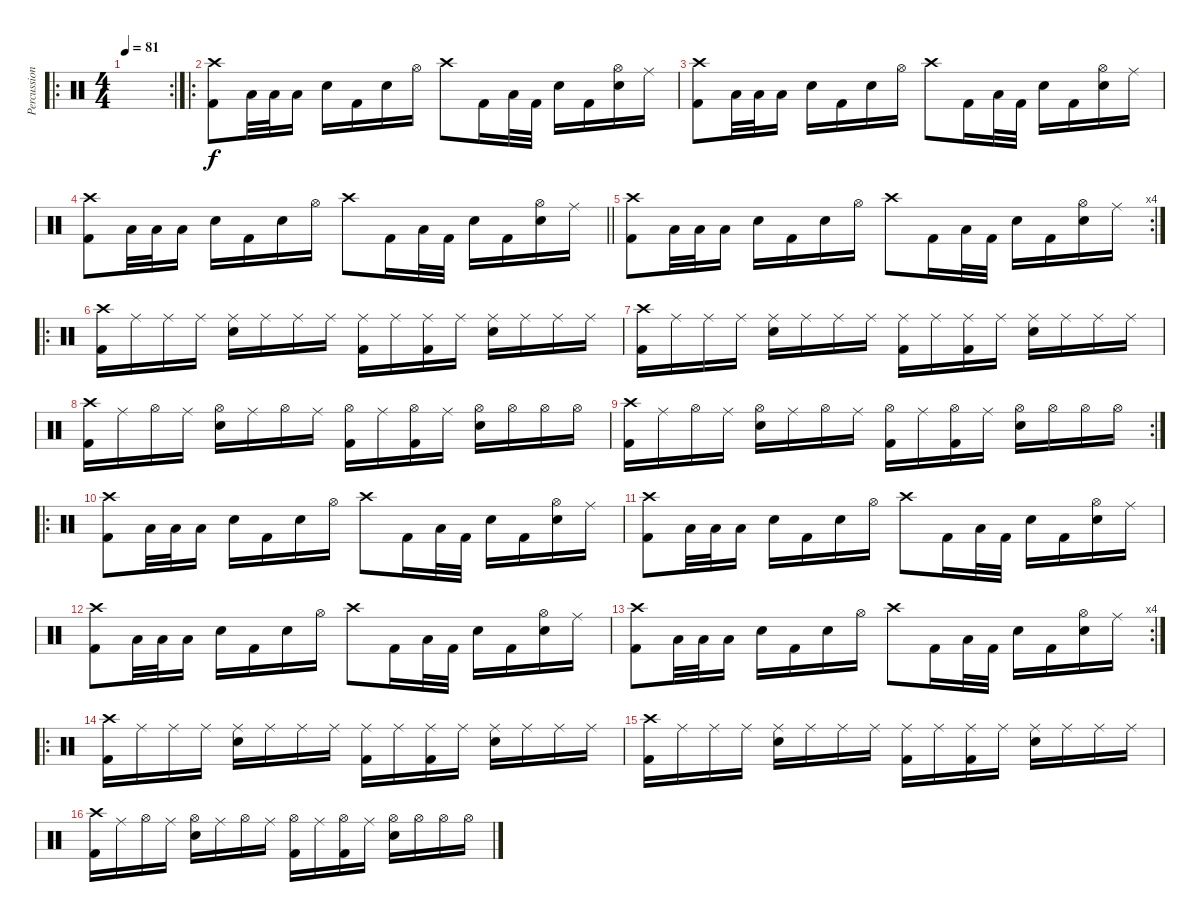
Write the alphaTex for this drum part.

\track ("Percussion" "Percussion") {instrument percussion}
\staff {score}
\articulation defaults
\ro
\rc 2
\ts (4 4)
\tempo 81
\clef neutral
\ks c
|
\ro
("Crash high (hit)" "Kick (hit) 2").8 "Low Floor Tom (hit)".32 "Low Floor Tom (hit)".32 "Low Floor Tom (hit)".16 "Snare (hit) 2".16 "Kick (hit) 2".16 "Snare (hit) 2".16 "Hi-Hat (open)".16 "Crash high (hit)".8 "Kick (hit) 2".16 "Low Floor Tom (hit)".32 "Kick (hit) 2".32 "Snare (hit) 2".16 "Kick (hit) 2".16 ("Hi-Hat (open)" "Snare (hit) 2").16 "Ride (middle)".16 |
("Crash high (hit)" "Kick (hit) 2").8 "Low Floor Tom (hit)".32 "Low Floor Tom (hit)".32 "Low Floor Tom (hit)".16 "Snare (hit) 2".16 "Kick (hit) 2".16 "Snare (hit) 2".16 "Hi-Hat (open)".16 "Crash high (hit)".8 "Kick (hit) 2".16 "Low Floor Tom (hit)".32 "Kick (hit) 2".32 "Snare (hit) 2".16 "Kick (hit) 2".16 ("Hi-Hat (open)" "Snare (hit) 2").16 "Ride (middle)".16 |
\barLineRight lightlight
("Crash high (hit)" "Kick (hit) 2").8 "Low Floor Tom (hit)".32 "Low Floor Tom (hit)".32 "Low Floor Tom (hit)".16 "Snare (hit) 2".16 "Kick (hit) 2".16 "Snare (hit) 2".16 "Hi-Hat (open)".16 "Crash high (hit)".8 "Kick (hit) 2".16 "Low Floor Tom (hit)".32 "Kick (hit) 2".32 "Snare (hit) 2".16 "Kick (hit) 2".16 ("Hi-Hat (open)" "Snare (hit) 2").16 "Ride (middle)".16 |
\rc 4
("Crash high (hit)" "Kick (hit) 2").8 "Low Floor Tom (hit)".32 "Low Floor Tom (hit)".32 "Low Floor Tom (hit)".16 "Snare (hit) 2".16 "Kick (hit) 2".16 "Snare (hit) 2".16 "Hi-Hat (open)".16 "Crash high (hit)".8 "Kick (hit) 2".16 "Low Floor Tom (hit)".32 "Kick (hit) 2".32 "Snare (hit) 2".16 "Kick (hit) 2".16 ("Hi-Hat (open)" "Snare (hit) 2").16 "Ride (middle)".16 |
\ro
("Crash high (hit)" "Kick (hit) 2").16 "Ride (middle)".16 "Ride (middle)".16 "Ride (middle)".16 ("Ride (middle)" "Snare (hit) 2").16 "Ride (middle)".16 "Ride (middle)".16 "Ride (middle)".16 ("Ride (middle)" "Kick (hit) 2").16 "Ride (middle)".16 ("Ride (middle)" "Kick (hit) 2").16 "Ride (middle)".16 ("Ride (middle)" "Snare (hit) 2").16 "Ride (middle)".16 "Ride (middle)".16 "Ride (middle)".16 |
("Crash high (hit)" "Kick (hit) 2").16 "Ride (middle)".16 "Ride (middle)".16 "Ride (middle)".16 ("Ride (middle)" "Snare (hit) 2").16 "Ride (middle)".16 "Ride (middle)".16 "Ride (middle)".16 ("Ride (middle)" "Kick (hit) 2").16 "Ride (middle)".16 ("Ride (middle)" "Kick (hit) 2").16 "Ride (middle)".16 ("Ride (middle)" "Snare (hit) 2").16 "Ride (middle)".16 "Ride (middle)".16 "Ride (middle)".16 |
("Crash high (hit)" "Kick (hit) 2").16 "Ride (middle)".16 "Hi-Hat (open)".16 "Ride (middle)".16 ("Hi-Hat (open)" "Snare (hit) 2").16 "Ride (middle)".16 "Hi-Hat (open)".16 "Ride (middle)".16 ("Hi-Hat (open)" "Kick (hit) 2").16 "Ride (middle)".16 ("Hi-Hat (open)" "Kick (hit) 2").16 "Ride (middle)".16 ("Hi-Hat (open)" "Snare (hit) 2").16 "Hi-Hat (open)".16 "Hi-Hat (open)".16 "Hi-Hat (open)".16 |
\rc 2
("Crash high (hit)" "Kick (hit) 2").16 "Ride (middle)".16 "Hi-Hat (open)".16 "Ride (middle)".16 ("Hi-Hat (open)" "Snare (hit) 2").16 "Ride (middle)".16 "Hi-Hat (open)".16 "Ride (middle)".16 ("Hi-Hat (open)" "Kick (hit) 2").16 "Ride (middle)".16 ("Hi-Hat (open)" "Kick (hit) 2").16 "Ride (middle)".16 ("Hi-Hat (open)" "Snare (hit) 2").16 "Hi-Hat (open)".16 "Hi-Hat (open)".16 "Hi-Hat (open)".16 |
\ro
("Crash high (hit)" "Kick (hit) 2").8 "Low Floor Tom (hit)".32 "Low Floor Tom (hit)".32 "Low Floor Tom (hit)".16 "Snare (hit) 2".16 "Kick (hit) 2".16 "Snare (hit) 2".16 "Hi-Hat (open)".16 "Crash high (hit)".8 "Kick (hit) 2".16 "Low Floor Tom (hit)".32 "Kick (hit) 2".32 "Snare (hit) 2".16 "Kick (hit) 2".16 ("Hi-Hat (open)" "Snare (hit) 2").16 "Ride (middle)".16 |
("Crash high (hit)" "Kick (hit) 2").8 "Low Floor Tom (hit)".32 "Low Floor Tom (hit)".32 "Low Floor Tom (hit)".16 "Snare (hit) 2".16 "Kick (hit) 2".16 "Snare (hit) 2".16 "Hi-Hat (open)".16 "Crash high (hit)".8 "Kick (hit) 2".16 "Low Floor Tom (hit)".32 "Kick (hit) 2".32 "Snare (hit) 2".16 "Kick (hit) 2".16 ("Hi-Hat (open)" "Snare (hit) 2").16 "Ride (middle)".16 |
("Crash high (hit)" "Kick (hit) 2").8 "Low Floor Tom (hit)".32 "Low Floor Tom (hit)".32 "Low Floor Tom (hit)".16 "Snare (hit) 2".16 "Kick (hit) 2".16 "Snare (hit) 2".16 "Hi-Hat (open)".16 "Crash high (hit)".8 "Kick (hit) 2".16 "Low Floor Tom (hit)".32 "Kick (hit) 2".32 "Snare (hit) 2".16 "Kick (hit) 2".16 ("Hi-Hat (open)" "Snare (hit) 2").16 "Ride (middle)".16 |
\rc 4
("Crash high (hit)" "Kick (hit) 2").8 "Low Floor Tom (hit)".32 "Low Floor Tom (hit)".32 "Low Floor Tom (hit)".16 "Snare (hit) 2".16 "Kick (hit) 2".16 "Snare (hit) 2".16 "Hi-Hat (open)".16 "Crash high (hit)".8 "Kick (hit) 2".16 "Low Floor Tom (hit)".32 "Kick (hit) 2".32 "Snare (hit) 2".16 "Kick (hit) 2".16 ("Hi-Hat (open)" "Snare (hit) 2").16 "Ride (middle)".16 |
\ro
("Crash high (hit)" "Kick (hit) 2").16 "Ride (middle)".16 "Ride (middle)".16 "Ride (middle)".16 ("Ride (middle)" "Snare (hit) 2").16 "Ride (middle)".16 "Ride (middle)".16 "Ride (middle)".16 ("Ride (middle)" "Kick (hit) 2").16 "Ride (middle)".16 ("Ride (middle)" "Kick (hit) 2").16 "Ride (middle)".16 ("Ride (middle)" "Snare (hit) 2").16 "Ride (middle)".16 "Ride (middle)".16 "Ride (middle)".16 |
("Crash high (hit)" "Kick (hit) 2").16 "Ride (middle)".16 "Ride (middle)".16 "Ride (middle)".16 ("Ride (middle)" "Snare (hit) 2").16 "Ride (middle)".16 "Ride (middle)".16 "Ride (middle)".16 ("Ride (middle)" "Kick (hit) 2").16 "Ride (middle)".16 ("Ride (middle)" "Kick (hit) 2").16 "Ride (middle)".16 ("Ride (middle)" "Snare (hit) 2").16 "Ride (middle)".16 "Ride (middle)".16 "Ride (middle)".16 |
("Crash high (hit)" "Kick (hit) 2").16 "Ride (middle)".16 "Hi-Hat (open)".16 "Ride (middle)".16 ("Hi-Hat (open)" "Snare (hit) 2").16 "Ride (middle)".16 "Hi-Hat (open)".16 "Ride (middle)".16 ("Hi-Hat (open)" "Kick (hit) 2").16 "Ride (middle)".16 ("Hi-Hat (open)" "Kick (hit) 2").16 "Ride (middle)".16 ("Hi-Hat (open)" "Snare (hit) 2").16 "Hi-Hat (open)".16 "Hi-Hat (open)".16 "Hi-Hat (open)".16
